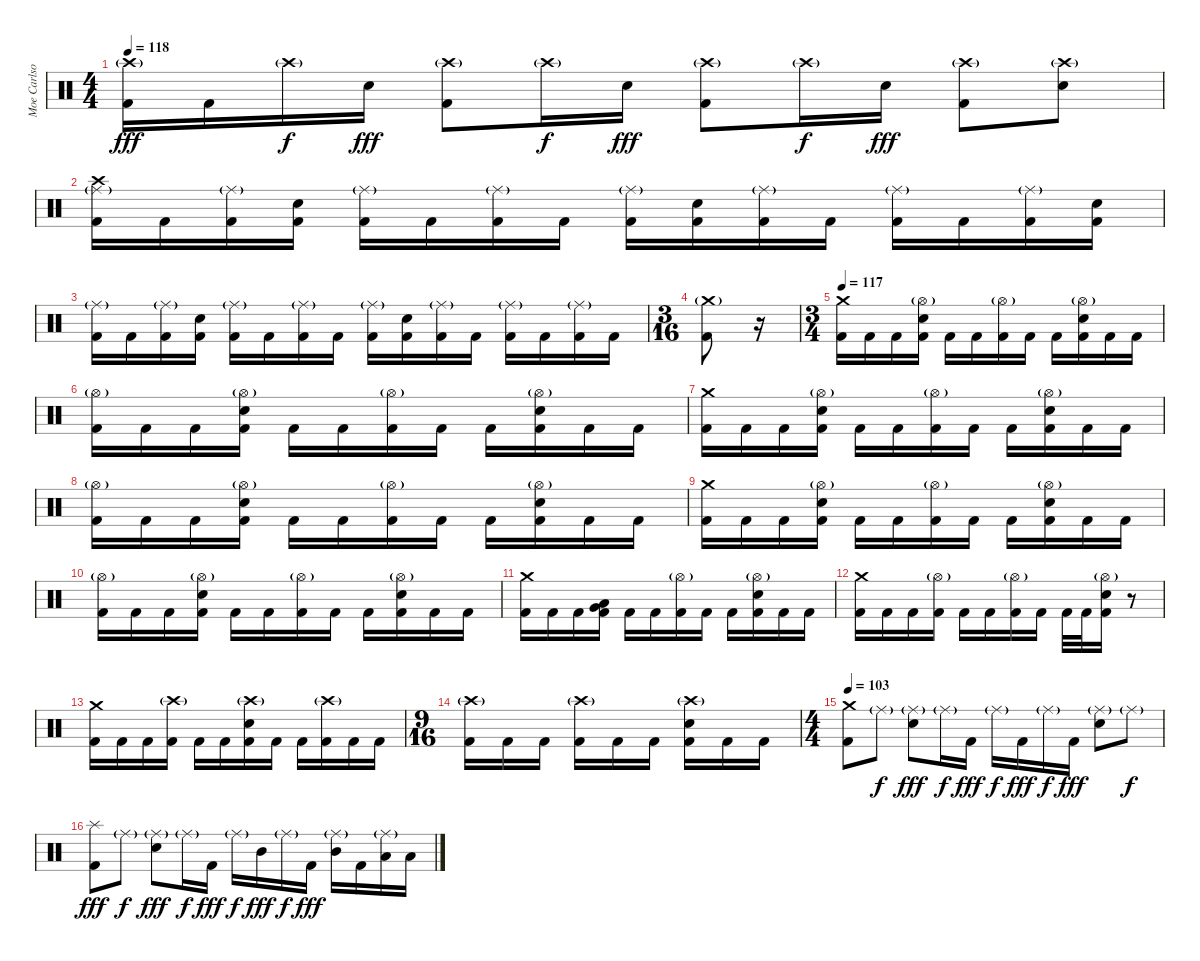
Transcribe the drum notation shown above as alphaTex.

\track ("Moe Carlson" "Moe Carlso") {instrument percussion}
\staff {score}
\articulation defaults
\ts (4 4)
\tempo 118
\clef neutral
\ks c
("Crash high (hit)"{g} "Kick (hit) 2").16{dy fff} "Kick (hit) 2".16 "Crash high (hit)"{g}.16{dy f} "Electric Snare (hit)".16{dy fff} ("Crash high (hit)"{g} "Kick (hit) 2").8 "Crash high (hit)"{g}.16{dy f} "Electric Snare (hit)".16{dy fff} ("Crash high (hit)"{g} "Kick (hit) 2").8 "Crash high (hit)"{g}.16{dy f} "Electric Snare (hit)".16{dy fff} ("Crash high (hit)"{g} "Kick (hit) 2").8 ("Crash high (hit)"{g} "Electric Snare (hit)").8 |
("Crash high (hit)" "Ride (middle)"{g} "Kick (hit) 2").16 "Kick (hit) 2".16 ("Ride (middle)"{g} "Kick (hit) 2").16 ("Electric Snare (hit)" "Kick (hit) 2").16 ("Ride (middle)"{g} "Kick (hit) 2").16 "Kick (hit) 2".16 ("Ride (middle)"{g} "Kick (hit) 2").16 "Kick (hit) 2".16 ("Ride (middle)"{g} "Kick (hit) 2").16 ("Electric Snare (hit)" "Kick (hit) 2").16 ("Ride (middle)"{g} "Kick (hit) 2").16 "Kick (hit) 2".16 ("Ride (middle)"{g} "Kick (hit) 2").16 "Kick (hit) 2".16 ("Ride (middle)"{g} "Kick (hit) 2").16 ("Electric Snare (hit)" "Kick (hit) 2").16 |
("Ride (middle)"{g} "Kick (hit) 2").16 "Kick (hit) 2".16 ("Ride (middle)"{g} "Kick (hit) 2").16 ("Electric Snare (hit)" "Kick (hit) 2").16 ("Ride (middle)"{g} "Kick (hit) 2").16 "Kick (hit) 2".16 ("Ride (middle)"{g} "Kick (hit) 2").16 "Kick (hit) 2".16 ("Ride (middle)"{g} "Kick (hit) 2").16 ("Electric Snare (hit)" "Kick (hit) 2").16 ("Ride (middle)"{g} "Kick (hit) 2").16 "Kick (hit) 2".16 ("Ride (middle)"{g} "Kick (hit) 2").16 "Kick (hit) 2".16 ("Ride (middle)"{g} "Kick (hit) 2").16 "Kick (hit) 2".16 |
\ts (3 16)
("Crash medium (hit)"{g} "Kick (hit) 2").8 r.16 |
\ts (3 4)
\tempo 117
("Crash medium (hit)" "Kick (hit) 2").16 "Kick (hit) 2".16 "Kick (hit) 2".16 ("Hi-Hat (open)"{g} "Electric Snare (hit)" "Kick (hit) 2").16 "Kick (hit) 2".16 "Kick (hit) 2".16 ("Hi-Hat (open)"{g} "Kick (hit) 2").16 "Kick (hit) 2".16 "Kick (hit) 2".16 ("Hi-Hat (open)"{g} "Electric Snare (hit)" "Kick (hit) 2").16 "Kick (hit) 2".16 "Kick (hit) 2".16 |
("Hi-Hat (open)"{g} "Kick (hit) 2").16 "Kick (hit) 2".16 "Kick (hit) 2".16 ("Hi-Hat (open)"{g} "Electric Snare (hit)" "Kick (hit) 2").16 "Kick (hit) 2".16 "Kick (hit) 2".16 ("Hi-Hat (open)"{g} "Kick (hit) 2").16 "Kick (hit) 2".16 "Kick (hit) 2".16 ("Hi-Hat (open)"{g} "Electric Snare (hit)" "Kick (hit) 2").16 "Kick (hit) 2".16 "Kick (hit) 2".16 |
("Crash medium (hit)" "Kick (hit) 2").16 "Kick (hit) 2".16 "Kick (hit) 2".16 ("Hi-Hat (open)"{g} "Electric Snare (hit)" "Kick (hit) 2").16 "Kick (hit) 2".16 "Kick (hit) 2".16 ("Hi-Hat (open)"{g} "Kick (hit) 2").16 "Kick (hit) 2".16 "Kick (hit) 2".16 ("Hi-Hat (open)"{g} "Electric Snare (hit)" "Kick (hit) 2").16 "Kick (hit) 2".16 "Kick (hit) 2".16 |
("Hi-Hat (open)"{g} "Kick (hit) 2").16 "Kick (hit) 2".16 "Kick (hit) 2".16 ("Hi-Hat (open)"{g} "Electric Snare (hit)" "Kick (hit) 2").16 "Kick (hit) 2".16 "Kick (hit) 2".16 ("Hi-Hat (open)"{g} "Kick (hit) 2").16 "Kick (hit) 2".16 "Kick (hit) 2".16 ("Hi-Hat (open)"{g} "Electric Snare (hit)" "Kick (hit) 2").16 "Kick (hit) 2".16 "Kick (hit) 2".16 |
("Crash medium (hit)" "Kick (hit) 2").16 "Kick (hit) 2".16 "Kick (hit) 2".16 ("Hi-Hat (open)"{g} "Electric Snare (hit)" "Kick (hit) 2").16 "Kick (hit) 2".16 "Kick (hit) 2".16 ("Hi-Hat (open)"{g} "Kick (hit) 2").16 "Kick (hit) 2".16 "Kick (hit) 2".16 ("Hi-Hat (open)"{g} "Electric Snare (hit)" "Kick (hit) 2").16 "Kick (hit) 2".16 "Kick (hit) 2".16 |
("Hi-Hat (open)"{g} "Kick (hit) 2").16 "Kick (hit) 2".16 "Kick (hit) 2".16 ("Hi-Hat (open)"{g} "Electric Snare (hit)" "Kick (hit) 2").16 "Kick (hit) 2".16 "Kick (hit) 2".16 ("Hi-Hat (open)"{g} "Kick (hit) 2").16 "Kick (hit) 2".16 "Kick (hit) 2".16 ("Hi-Hat (open)"{g} "Electric Snare (hit)" "Kick (hit) 2").16 "Kick (hit) 2".16 "Kick (hit) 2".16 |
("Crash medium (hit)" "Kick (hit) 2").16 "Kick (hit) 2".16 "Kick (hit) 2".16 ("Low Tom (hit)" "Very Low Tom (hit)" "Kick (hit) 2").16 "Kick (hit) 2".16 "Kick (hit) 2".16 ("Hi-Hat (open)"{g} "Kick (hit) 2").16 "Kick (hit) 2".16 "Kick (hit) 2".16 ("Hi-Hat (open)"{g} "Electric Snare (hit)" "Kick (hit) 2").16 "Kick (hit) 2".16 "Kick (hit) 2".16 |
("Crash medium (hit)" "Kick (hit) 2").16 "Kick (hit) 2".16 "Kick (hit) 2".16 ("Hi-Hat (open)"{g} "Kick (hit) 2").16 "Kick (hit) 2".16 "Kick (hit) 2".16 ("Hi-Hat (open)"{g} "Kick (hit) 2").16 "Kick (hit) 2".16 "Kick (hit) 2".32 "Kick (hit) 2".32 ("Hi-Hat (open)"{g} "Electric Snare (hit)" "Kick (hit) 2").16 r.8 |
("Crash medium (hit)" "Kick (hit) 2").16 "Kick (hit) 2".16 "Kick (hit) 2".16 ("Crash high (hit)"{g} "Kick (hit) 2").16 "Kick (hit) 2".16 "Kick (hit) 2".16 ("Crash high (hit)"{g} "Electric Snare (hit)" "Kick (hit) 2").16 "Kick (hit) 2".16 "Kick (hit) 2".16 ("Crash high (hit)"{g} "Kick (hit) 2").16 "Kick (hit) 2".16 "Kick (hit) 2".16 |
\ts (9 16)
("Crash high (hit)"{g} "Kick (hit) 2").16 "Kick (hit) 2".16 "Kick (hit) 2".16 ("Crash high (hit)"{g} "Kick (hit) 2").16 "Kick (hit) 2".16 "Kick (hit) 2".16 ("Crash high (hit)"{g} "Electric Snare (hit)" "Kick (hit) 2").16 "Kick (hit) 2".16 "Kick (hit) 2".16 |
\ts (4 4)
\tempo 103
("Crash medium (hit)" "Kick (hit) 2").8 "Ride (middle)"{g}.8{dy f} ("Ride (middle)"{g} "Electric Snare (hit)").8{dy fff} "Ride (middle)"{g}.16{dy f} "Kick (hit) 2".16{dy fff} "Ride (middle)"{g}.16{dy f} "Kick (hit) 2".16{dy fff} "Ride (middle)"{g}.16{dy f} "Kick (hit) 2".16{dy fff} ("Ride (middle)"{g} "Electric Snare (hit)").8 "Ride (middle)"{g}.8{dy f} |
("Splash (hit)" "Kick (hit) 2").8{dy fff} "Ride (middle)"{g}.8{dy f} ("Ride (middle)"{g} "Electric Snare (hit)").8{dy fff} "Ride (middle)"{g}.16{dy f} "Kick (hit) 2".16{dy fff} "Ride (middle)"{g}.16{dy f} "Mid Tom (hit)".16{dy fff} "Ride (middle)"{g}.16{dy f} "Kick (hit) 2".16{dy fff} ("Ride (middle)"{g} "Mid Tom (hit)").16 "Kick (hit) 2".16 ("Ride (middle)"{g} "Low Floor Tom (hit)").16 "Low Floor Tom (hit)".16
